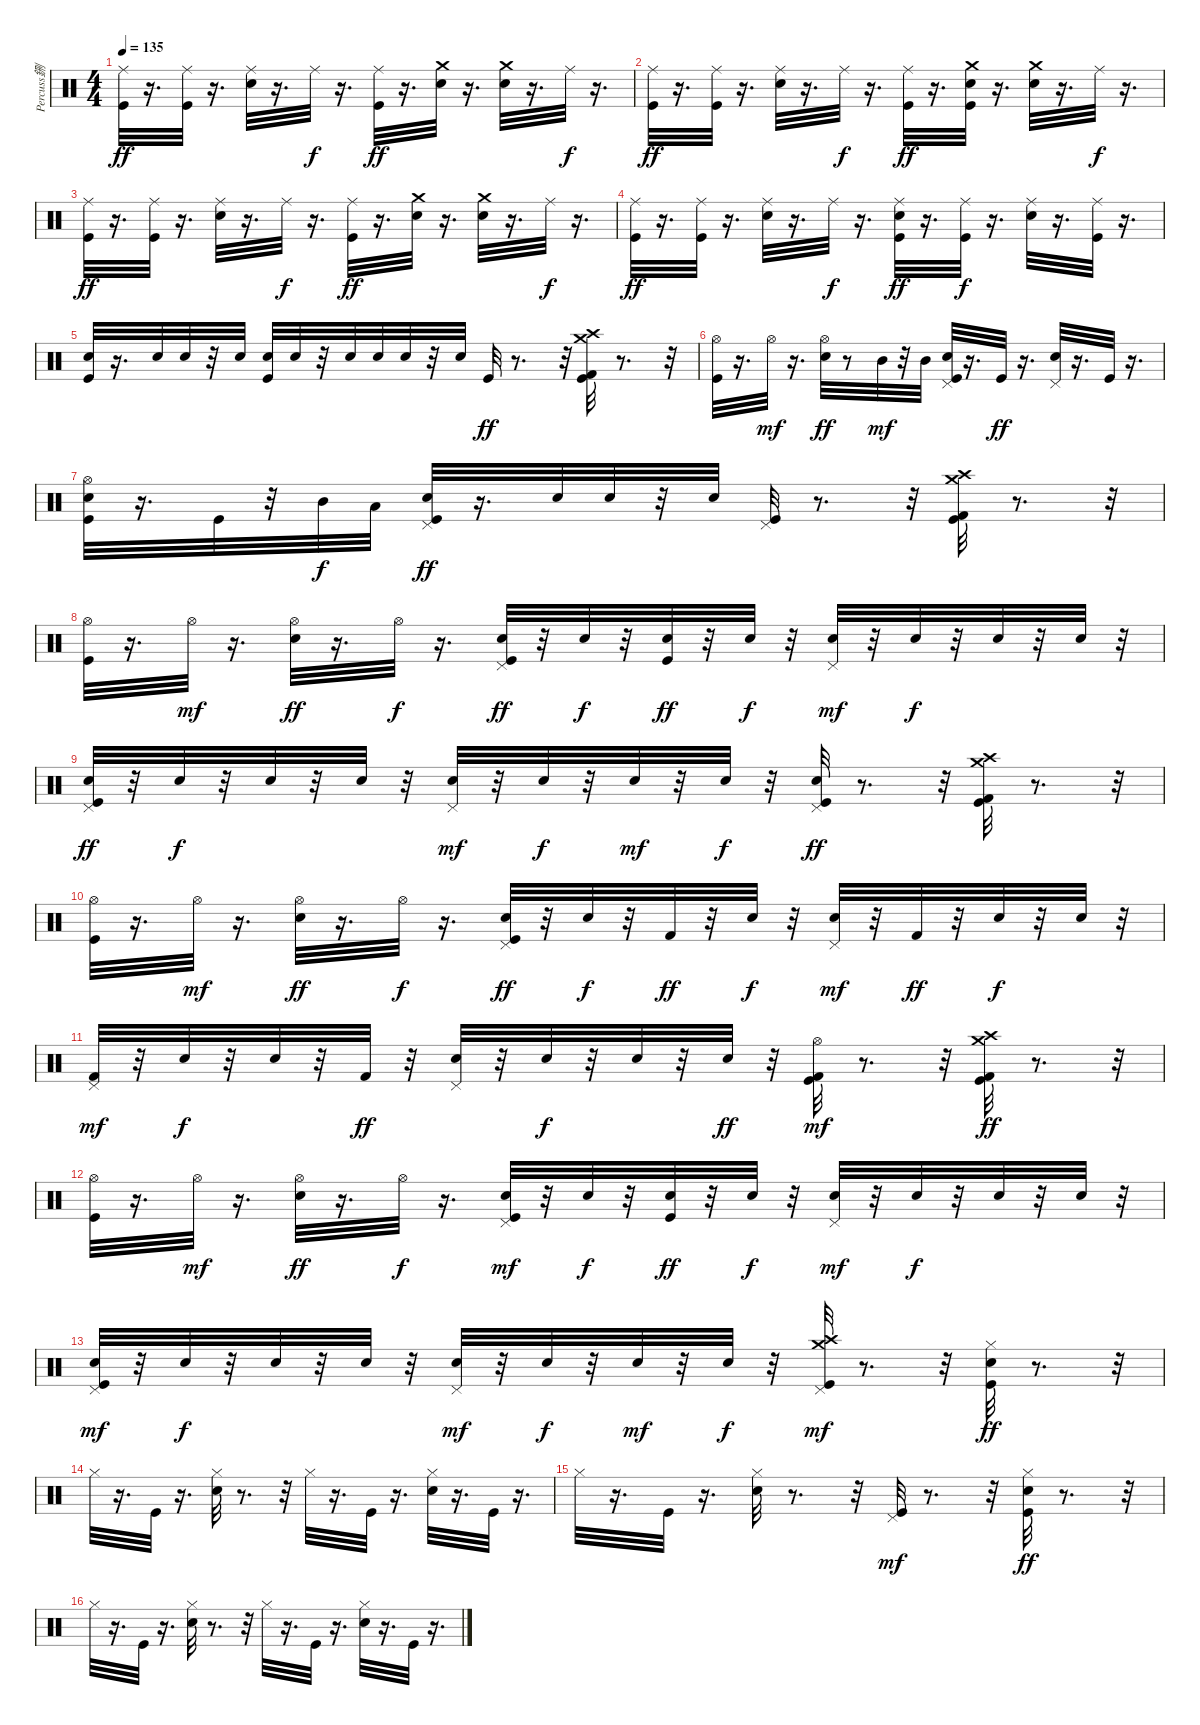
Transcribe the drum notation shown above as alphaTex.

\track ("Percuss鉶" "Percuss鉶") {instrument percussion}
\staff {score}
\articulation defaults
\ts (4 4)
\tempo 135
\clef neutral
\ks c
("Kick (hit)" "Ride (middle)").32{dy ff} r.16{d} ("Kick (hit)" "Ride (middle)").32 r.16{d} ("Electric Snare (hit)" "Ride (middle)").32 r.16{d} "Ride (middle)".32{dy f} r.16{d} ("Kick (hit)" "Ride (middle)").32{dy ff} r.16{d} ("Crash medium (hit)" "Electric Snare (hit)").32 r.16{d} ("Electric Snare (hit)" "Crash medium (hit)").32 r.16{d} "Ride (middle)".32{dy f} r.16{d} |
("Kick (hit)" "Ride (middle)").32{dy ff} r.16{d} ("Kick (hit)" "Ride (middle)").32 r.16{d} ("Electric Snare (hit)" "Ride (middle)").32 r.16{d} "Ride (middle)".32{dy f} r.16{d} ("Kick (hit)" "Ride (middle)").32{dy ff} r.16{d} ("Electric Snare (hit)" "Kick (hit)" "Crash medium (hit)").32 r.16{d} ("Crash medium (hit)" "Electric Snare (hit)").32 r.16{d} "Ride (middle)".32{dy f} r.16{d} |
("Kick (hit)" "Ride (middle)").32{dy ff} r.16{d} ("Kick (hit)" "Ride (middle)").32 r.16{d} ("Electric Snare (hit)" "Ride (middle)").32 r.16{d} "Ride (middle)".32{dy f} r.16{d} ("Kick (hit)" "Ride (middle)").32{dy ff} r.16{d} ("Electric Snare (hit)" "Crash medium (hit)").32 r.16{d} ("Electric Snare (hit)" "Crash medium (hit)").32 r.16{d} "Ride (middle)".32{dy f} r.16{d} |
("Kick (hit)" "Ride (middle)").32{dy ff} r.16{d} ("Kick (hit)" "Ride (middle)").32 r.16{d} ("Electric Snare (hit)" "Ride (middle)").32 r.16{d} "Ride (middle)".32{dy f} r.16{d} ("Kick (hit)" "Electric Snare (hit)" "Ride (middle)").32{dy ff} r.16{d} ("Kick (hit)" "Ride (middle)").32{dy f} r.16{d} ("Electric Snare (hit)" "Ride (middle)").32 r.16{d} ("Kick (hit)" "Ride (middle)").32 r.16{d} |
("Kick (hit)" "Electric Snare (hit)").32 r.16{d} "Electric Snare (hit)".32 "Electric Snare (hit)".32 r.32 "Electric Snare (hit)".32 ("Snare (hit) 2" "Kick (hit)").32 "Electric Snare (hit)".32 r.32 "Electric Snare (hit)".32 "Electric Snare (hit)".32 "Electric Snare (hit)".32 r.32 "Electric Snare (hit)".32 "Kick (hit)".32{dy ff} r.8{d} r.32 ("Crash medium (hit)" "Kick (hit) 2" "Kick (hit)" "Crash high (hit)").32 r.8{d} r.32 |
("Hi-Hat (open)" "Kick (hit)").32 r.16{d} "Hi-Hat (open)".32{dy mf} r.16{d} ("Electric Snare (hit)" "Hi-Hat (open)").32{dy ff} r.8 "Mid Tom (hit)".32{dy mf} r.32 "Mid Tom (hit)".32 ("Electric Snare (hit)" "Kick (hit)" "Pedal Hi-Hat (hit)").32 r.16{d} "Kick (hit)".32{dy ff} r.16{d} ("Pedal Hi-Hat (hit)" "Electric Snare (hit)").32 r.16{d} "Kick (hit)".32 r.16{d} |
("Hi-Hat (open)" "Kick (hit)" "Electric Snare (hit)").32 r.16{d} "Kick (hit)".32 r.32 "Mid Tom (hit)".32{dy f} "Low Tom (hit)".32 ("Kick (hit)" "Pedal Hi-Hat (hit)" "Electric Snare (hit)").32{dy ff} r.16{d} "Electric Snare (hit)".32 "Electric Snare (hit)".32 r.32 "Electric Snare (hit)".32 ("Pedal Hi-Hat (hit)" "Kick (hit)").32 r.8{d} r.32 ("Kick (hit) 2" "Kick (hit)" "Crash high (hit)" "Crash medium (hit)").32 r.8{d} r.32 |
("Hi-Hat (open)" "Kick (hit)").32 r.16{d} "Hi-Hat (open)".32{dy mf} r.16{d} ("Hi-Hat (open)" "Electric Snare (hit)").32{dy ff} r.16{d} "Hi-Hat (open)".32{dy f} r.16{d} ("Pedal Hi-Hat (hit)" "Kick (hit)" "Electric Snare (hit)").32{dy ff} r.32 "Electric Snare (hit)".32{dy f} r.32 ("Electric Snare (hit)" "Kick (hit)").32{dy ff} r.32 "Electric Snare (hit)".32{dy f} r.32 ("Pedal Hi-Hat (hit)" "Electric Snare (hit)").32{dy mf} r.32 "Electric Snare (hit)".32{dy f} r.32 "Electric Snare (hit)".32 r.32 "Electric Snare (hit)".32 r.32 |
("Electric Snare (hit)" "Pedal Hi-Hat (hit)" "Kick (hit)").32{dy ff} r.32 "Electric Snare (hit)".32{dy f} r.32 "Electric Snare (hit)".32 r.32 "Electric Snare (hit)".32 r.32 ("Electric Snare (hit)" "Pedal Hi-Hat (hit)").32{dy mf} r.32 "Electric Snare (hit)".32{dy f} r.32 "Electric Snare (hit)".32{dy mf} r.32 "Electric Snare (hit)".32{dy f} r.32 ("Pedal Hi-Hat (hit)" "Electric Snare (hit)" "Kick (hit)").32{dy ff} r.8{d} r.32 ("Kick (hit) 2" "Kick (hit)" "Crash high (hit)" "Crash medium (hit)").32 r.8{d} r.32 |
("Hi-Hat (open)" "Kick (hit)").32 r.16{d} "Hi-Hat (open)".32{dy mf} r.16{d} ("Hi-Hat (open)" "Electric Snare (hit)").32{dy ff} r.16{d} "Hi-Hat (open)".32{dy f} r.16{d} ("Pedal Hi-Hat (hit)" "Kick (hit)" "Electric Snare (hit)").32{dy ff} r.32 "Snare (hit) 2".32{dy f} r.32 "Kick (hit) 2".32{dy ff} r.32 "Electric Snare (hit)".32{dy f} r.32 ("Snare (hit) 2" "Pedal Hi-Hat (hit)").32{dy mf} r.32 "Kick (hit) 2".32{dy ff} r.32 "Electric Snare (hit)".32{dy f} r.32 "Snare (hit) 2".32 r.32 |
("Kick (hit) 2" "Pedal Hi-Hat (hit)").32{dy mf} r.32 "Electric Snare (hit)".32{dy f} r.32 "Snare (hit) 2".32 r.32 "Kick (hit) 2".32{dy ff} r.32 ("Pedal Hi-Hat (hit)" "Electric Snare (hit)").32 r.32 "Electric Snare (hit)".32{dy f} r.32 "Electric Snare (hit)".32 r.32 "Electric Snare (hit)".32{dy ff} r.32 ("Kick (hit) 2" "Kick (hit)" "Hi-Hat (open)").32{dy mf} r.8{d} r.32 ("Kick (hit) 2" "Crash high (hit)" "Kick (hit)" "Crash medium (hit)").32{dy ff} r.8{d} r.32 |
("Hi-Hat (open)" "Kick (hit)").32 r.16{d} "Hi-Hat (open)".32{dy mf} r.16{d} ("Electric Snare (hit)" "Hi-Hat (open)").32{dy ff} r.16{d} "Hi-Hat (open)".32{dy f} r.16{d} ("Kick (hit)" "Electric Snare (hit)" "Pedal Hi-Hat (hit)").32{dy mf} r.32 "Electric Snare (hit)".32{dy f} r.32 ("Kick (hit)" "Electric Snare (hit)").32{dy ff} r.32 "Electric Snare (hit)".32{dy f} r.32 ("Pedal Hi-Hat (hit)" "Electric Snare (hit)").32{dy mf} r.32 "Electric Snare (hit)".32{dy f} r.32 "Electric Snare (hit)".32 r.32 "Electric Snare (hit)".32 r.32 |
("Kick (hit)" "Pedal Hi-Hat (hit)" "Electric Snare (hit)").32{dy mf} r.32 "Electric Snare (hit)".32{dy f} r.32 "Electric Snare (hit)".32 r.32 "Electric Snare (hit)".32 r.32 ("Pedal Hi-Hat (hit)" "Electric Snare (hit)").32{dy mf} r.32 "Electric Snare (hit)".32{dy f} r.32 "Electric Snare (hit)".32{dy mf} r.32 "Electric Snare (hit)".32{dy f} r.32 ("Crash high (hit)" "Crash medium (hit)" "Kick (hit)" "Pedal Hi-Hat (hit)").32{dy mf} r.8{d} r.32 ("Hi-Hat (closed)" "Electric Snare (hit)" "Kick (hit)").32{dy ff} r.8{d} r.32 |
"Hi-Hat (closed)".32 r.16{d} "Kick (hit)".32 r.16{d} ("Hi-Hat (closed)" "Electric Snare (hit)").32 r.8{d} r.32 "Hi-Hat (closed)".32 r.16{d} "Kick (hit)".32 r.16{d} ("Hi-Hat (closed)" "Electric Snare (hit)").32 r.16{d} "Kick (hit)".32 r.16{d} |
"Hi-Hat (closed)".32 r.16{d} "Kick (hit)".32 r.16{d} ("Hi-Hat (closed)" "Electric Snare (hit)").32 r.8{d} r.32 ("Kick (hit)" "Pedal Hi-Hat (hit)").32{dy mf} r.8{d} r.32 ("Hi-Hat (closed)" "Electric Snare (hit)" "Kick (hit)").32{dy ff} r.8{d} r.32 |
"Hi-Hat (closed)".32 r.16{d} "Kick (hit)".32 r.16{d} ("Hi-Hat (closed)" "Electric Snare (hit)").32 r.8{d} r.32 "Hi-Hat (closed)".32 r.16{d} "Kick (hit)".32 r.16{d} ("Hi-Hat (closed)" "Electric Snare (hit)").32 r.16{d} "Kick (hit)".32 r.16{d}
